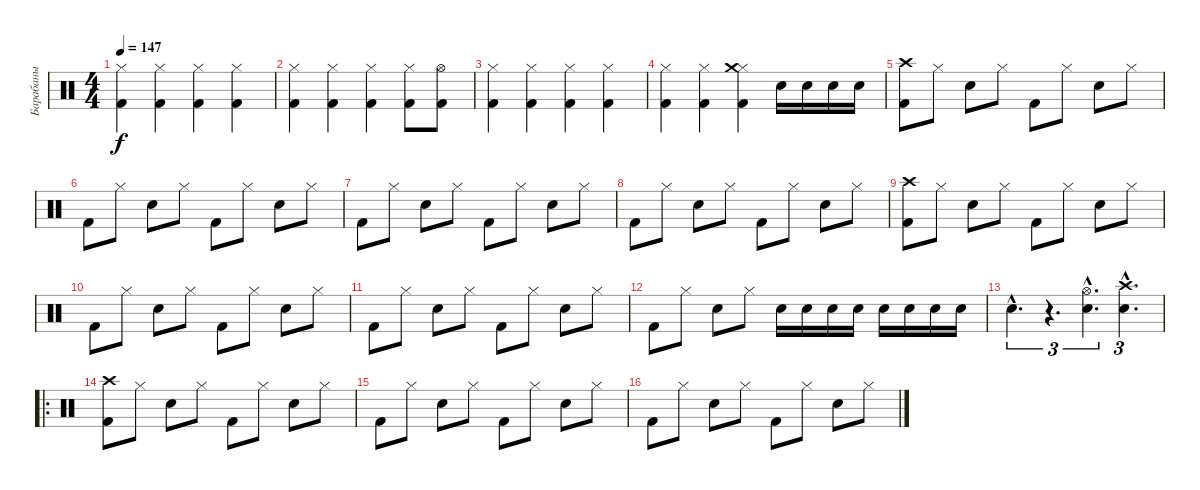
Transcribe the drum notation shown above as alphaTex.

\track ("Барабаны" "Барабаны") {instrument percussion}
\staff {score}
\articulation defaults
\ts (4 4)
\tempo 147
\clef neutral
\ks c
("Kick (hit) 2" "Hi-Hat (closed)").4{dy f} ("Kick (hit) 2" "Hi-Hat (closed)").4 ("Kick (hit) 2" "Hi-Hat (closed)").4 ("Kick (hit) 2" "Hi-Hat (closed)").4 |
("Kick (hit) 2" "Hi-Hat (closed)").4 ("Kick (hit) 2" "Hi-Hat (closed)").4 ("Kick (hit) 2" "Hi-Hat (closed)").4 ("Kick (hit) 2" "Hi-Hat (closed)").8 ("Kick (hit) 2" "Hi-Hat (open)").8 |
("Kick (hit) 2" "Hi-Hat (closed)").4 ("Kick (hit) 2" "Hi-Hat (closed)").4 ("Kick (hit) 2" "Hi-Hat (closed)").4 ("Kick (hit) 2" "Hi-Hat (closed)").4 |
("Kick (hit) 2" "Hi-Hat (closed)").4 ("Kick (hit) 2" "Hi-Hat (closed)").4 ("Kick (hit) 2" "Hi-Hat (closed)" "Crash medium (hit)").4 "Electric Snare (hit)".16 "Electric Snare (hit)".16 "Electric Snare (hit)".16 "Electric Snare (hit)".16 |
("Kick (hit) 2" "Crash high (hit)").8 "Hi-Hat (closed)".8 "Electric Snare (hit)".8 "Hi-Hat (closed)".8 "Kick (hit) 2".8 "Hi-Hat (closed)".8 "Electric Snare (hit)".8 "Hi-Hat (closed)".8 |
"Kick (hit) 2".8 "Hi-Hat (closed)".8 "Electric Snare (hit)".8 "Hi-Hat (closed)".8 "Kick (hit) 2".8 "Hi-Hat (closed)".8 "Electric Snare (hit)".8 "Hi-Hat (closed)".8 |
"Kick (hit) 2".8 "Hi-Hat (closed)".8 "Electric Snare (hit)".8 "Hi-Hat (closed)".8 "Kick (hit) 2".8 "Hi-Hat (closed)".8 "Electric Snare (hit)".8 "Hi-Hat (closed)".8 |
"Kick (hit) 2".8 "Hi-Hat (closed)".8 "Electric Snare (hit)".8 "Hi-Hat (closed)".8 "Kick (hit) 2".8 "Hi-Hat (closed)".8 "Electric Snare (hit)".8 "Hi-Hat (closed)".8 |
("Kick (hit) 2" "Crash high (hit)").8 "Hi-Hat (closed)".8 "Electric Snare (hit)".8 "Hi-Hat (closed)".8 "Kick (hit) 2".8 "Hi-Hat (closed)".8 "Electric Snare (hit)".8 "Hi-Hat (closed)".8 |
"Kick (hit) 2".8 "Hi-Hat (closed)".8 "Electric Snare (hit)".8 "Hi-Hat (closed)".8 "Kick (hit) 2".8 "Hi-Hat (closed)".8 "Electric Snare (hit)".8 "Hi-Hat (closed)".8 |
"Kick (hit) 2".8 "Hi-Hat (closed)".8 "Electric Snare (hit)".8 "Hi-Hat (closed)".8 "Kick (hit) 2".8 "Hi-Hat (closed)".8 "Electric Snare (hit)".8 "Hi-Hat (closed)".8 |
"Kick (hit) 2".8 "Hi-Hat (closed)".8 "Electric Snare (hit)".8 "Hi-Hat (closed)".8 "Electric Snare (hit)".16 "Electric Snare (hit)".16 "Electric Snare (hit)".16 "Electric Snare (hit)".16 "Electric Snare (hit)".16 "Electric Snare (hit)".16 "Electric Snare (hit)".16 "Electric Snare (hit)".16 |
"Electric Snare (hit)"{hac}.4{d tu (3 2)} r.4{d tu (3 2)} ("Electric Snare (hit)"{hac} "Hi-Hat (open)"{hac}).4{d tu (3 2)} ("Electric Snare (hit)"{hac} "Crash high (hit)"{hac}).4{d tu (3 2)} |
\ro
("Kick (hit) 2" "Crash high (hit)").8 "Hi-Hat (closed)".8 "Electric Snare (hit)".8 "Hi-Hat (closed)".8 "Kick (hit) 2".8 "Hi-Hat (closed)".8 "Electric Snare (hit)".8 "Hi-Hat (closed)".8 |
"Kick (hit) 2".8 "Hi-Hat (closed)".8 "Electric Snare (hit)".8 "Hi-Hat (closed)".8 "Kick (hit) 2".8 "Hi-Hat (closed)".8 "Electric Snare (hit)".8 "Hi-Hat (closed)".8 |
"Kick (hit) 2".8 "Hi-Hat (closed)".8 "Electric Snare (hit)".8 "Hi-Hat (closed)".8 "Kick (hit) 2".8 "Hi-Hat (closed)".8 "Electric Snare (hit)".8 "Hi-Hat (closed)".8
